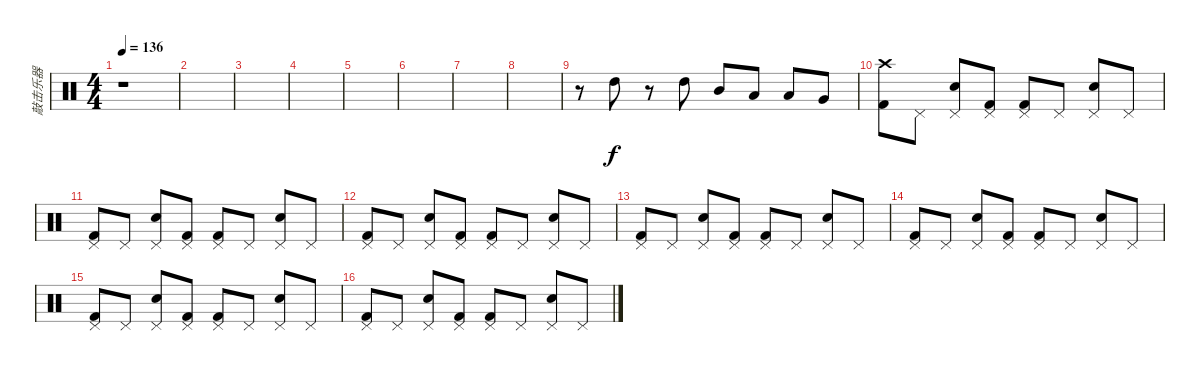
\track ("敲击乐器" "敲击乐器") {instrument percussion}
\staff {score}
\articulation defaults
\ts (4 4)
\tempo 136
\clef neutral
\ks c
r.1{dy f} |
|
|
|
|
|
|
|
r.8 "High Tom (hit)".8 r.8 "High Tom (hit)".8 "Mid Tom (hit)".8 "Low Tom (hit)".8 "Low Tom (hit)".8 "Very Low Tom (hit)".8 |
("Crash high (hit)" "Kick (hit) 2").8 "Pedal Hi-Hat (hit)".8 ("Pedal Hi-Hat (hit)" "Snare (hit) 2").8 ("Pedal Hi-Hat (hit)" "Kick (hit) 2").8 ("Pedal Hi-Hat (hit)" "Kick (hit) 2").8 "Pedal Hi-Hat (hit)".8 ("Pedal Hi-Hat (hit)" "Snare (hit) 2").8 "Pedal Hi-Hat (hit)".8 |
("Pedal Hi-Hat (hit)" "Kick (hit) 2").8 "Pedal Hi-Hat (hit)".8 ("Pedal Hi-Hat (hit)" "Snare (hit) 2").8 ("Pedal Hi-Hat (hit)" "Kick (hit) 2").8 ("Pedal Hi-Hat (hit)" "Kick (hit) 2").8 "Pedal Hi-Hat (hit)".8 ("Pedal Hi-Hat (hit)" "Snare (hit) 2").8 "Pedal Hi-Hat (hit)".8 |
("Pedal Hi-Hat (hit)" "Kick (hit) 2").8 "Pedal Hi-Hat (hit)".8 ("Pedal Hi-Hat (hit)" "Snare (hit) 2").8 ("Pedal Hi-Hat (hit)" "Kick (hit) 2").8 ("Pedal Hi-Hat (hit)" "Kick (hit) 2").8 "Pedal Hi-Hat (hit)".8 ("Pedal Hi-Hat (hit)" "Snare (hit) 2").8 "Pedal Hi-Hat (hit)".8 |
("Pedal Hi-Hat (hit)" "Kick (hit) 2").8 "Pedal Hi-Hat (hit)".8 ("Pedal Hi-Hat (hit)" "Snare (hit) 2").8 ("Pedal Hi-Hat (hit)" "Kick (hit) 2").8 ("Pedal Hi-Hat (hit)" "Kick (hit) 2").8 "Pedal Hi-Hat (hit)".8 ("Pedal Hi-Hat (hit)" "Snare (hit) 2").8 "Pedal Hi-Hat (hit)".8 |
("Pedal Hi-Hat (hit)" "Kick (hit) 2").8 "Pedal Hi-Hat (hit)".8 ("Pedal Hi-Hat (hit)" "Snare (hit) 2").8 ("Pedal Hi-Hat (hit)" "Kick (hit) 2").8 ("Pedal Hi-Hat (hit)" "Kick (hit) 2").8 "Pedal Hi-Hat (hit)".8 ("Pedal Hi-Hat (hit)" "Snare (hit) 2").8 "Pedal Hi-Hat (hit)".8 |
("Pedal Hi-Hat (hit)" "Kick (hit) 2").8 "Pedal Hi-Hat (hit)".8 ("Pedal Hi-Hat (hit)" "Snare (hit) 2").8 ("Pedal Hi-Hat (hit)" "Kick (hit) 2").8 ("Pedal Hi-Hat (hit)" "Kick (hit) 2").8 "Pedal Hi-Hat (hit)".8 ("Pedal Hi-Hat (hit)" "Snare (hit) 2").8 "Pedal Hi-Hat (hit)".8 |
("Pedal Hi-Hat (hit)" "Kick (hit) 2").8 "Pedal Hi-Hat (hit)".8 ("Pedal Hi-Hat (hit)" "Snare (hit) 2").8 ("Pedal Hi-Hat (hit)" "Kick (hit) 2").8 ("Pedal Hi-Hat (hit)" "Kick (hit) 2").8 "Pedal Hi-Hat (hit)".8 ("Pedal Hi-Hat (hit)" "Snare (hit) 2").8 "Pedal Hi-Hat (hit)".8
